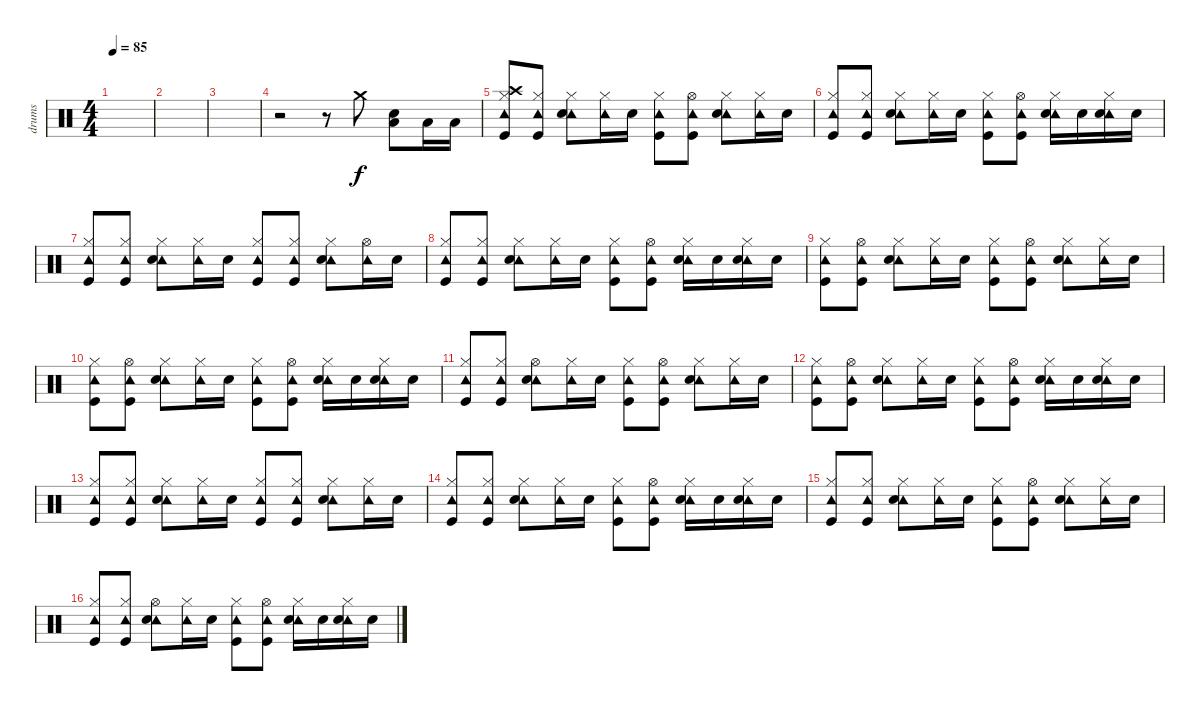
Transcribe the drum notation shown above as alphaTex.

\track ("drums" "drums") {instrument percussion}
\staff {score}
\articulation defaults
\ts (4 4)
\tempo 85
\clef neutral
\ks c
|
|
|
r.2 r.8 "Crash medium (hit)".8 ("Low Tom (hit)" "Electric Snare (hit)").8 "Low Tom (hit)".16 "Low Tom (hit)".16 |
\section ("" "")
("Tambourine (hit)" "Hi-Hat (closed)" "Crash high (hit)" "Kick (hit)").8 ("Tambourine (hit)" "Hi-Hat (closed)" "Kick (hit)").8 ("Tambourine (hit)" "Hi-Hat (closed)" "Electric Snare (hit)").8 ("Tambourine (hit)" "Hi-Hat (closed)").16 "Electric Snare (hit)".16 ("Tambourine (hit)" "Hi-Hat (closed)" "Kick (hit)").8 ("Tambourine (hit)" "Hi-Hat (open)" "Kick (hit)").8 ("Tambourine (hit)" "Hi-Hat (closed)" "Electric Snare (hit)").8 ("Tambourine (hit)" "Hi-Hat (closed)").16 "Electric Snare (hit)".16 |
("Tambourine (hit)" "Hi-Hat (closed)" "Kick (hit)").8 ("Tambourine (hit)" "Hi-Hat (closed)" "Kick (hit)").8 ("Tambourine (hit)" "Hi-Hat (closed)" "Electric Snare (hit)").8 ("Tambourine (hit)" "Hi-Hat (closed)").16 "Electric Snare (hit)".16 ("Tambourine (hit)" "Hi-Hat (closed)" "Kick (hit)").8 ("Tambourine (hit)" "Hi-Hat (open)" "Kick (hit)").8 ("Tambourine (hit)" "Hi-Hat (closed)" "Electric Snare (hit)").16 "Electric Snare (hit)".16 ("Tambourine (hit)" "Hi-Hat (closed)" "Electric Snare (hit)").16 "Electric Snare (hit)".16 |
("Tambourine (hit)" "Hi-Hat (closed)" "Kick (hit)").8 ("Tambourine (hit)" "Hi-Hat (closed)" "Kick (hit)").8 ("Tambourine (hit)" "Hi-Hat (closed)" "Electric Snare (hit)").8 ("Tambourine (hit)" "Hi-Hat (closed)").16 "Electric Snare (hit)".16 ("Tambourine (hit)" "Hi-Hat (closed)" "Kick (hit)").8 ("Tambourine (hit)" "Hi-Hat (closed)" "Kick (hit)").8 ("Tambourine (hit)" "Hi-Hat (closed)" "Electric Snare (hit)").8 ("Tambourine (hit)" "Hi-Hat (open)").16 "Electric Snare (hit)".16 |
("Tambourine (hit)" "Hi-Hat (closed)" "Kick (hit)").8 ("Tambourine (hit)" "Hi-Hat (closed)" "Kick (hit)").8 ("Tambourine (hit)" "Hi-Hat (closed)" "Electric Snare (hit)").8 ("Tambourine (hit)" "Hi-Hat (closed)").16 "Electric Snare (hit)".16 ("Tambourine (hit)" "Hi-Hat (closed)" "Kick (hit)").8 ("Tambourine (hit)" "Hi-Hat (open)" "Kick (hit)").8 ("Tambourine (hit)" "Hi-Hat (closed)" "Electric Snare (hit)").16 "Electric Snare (hit)".16 ("Tambourine (hit)" "Hi-Hat (closed)" "Electric Snare (hit)").16 "Electric Snare (hit)".16 |
\section ("" "")
("Tambourine (hit)" "Hi-Hat (closed)" "Kick (hit)").8 ("Tambourine (hit)" "Hi-Hat (open)" "Kick (hit)").8 ("Tambourine (hit)" "Hi-Hat (closed)" "Electric Snare (hit)").8 ("Tambourine (hit)" "Hi-Hat (closed)").16 "Electric Snare (hit)".16 ("Tambourine (hit)" "Hi-Hat (closed)" "Kick (hit)").8 ("Tambourine (hit)" "Hi-Hat (open)" "Kick (hit)").8 ("Tambourine (hit)" "Hi-Hat (closed)" "Electric Snare (hit)").8 ("Tambourine (hit)" "Hi-Hat (closed)").16 "Electric Snare (hit)".16 |
("Tambourine (hit)" "Hi-Hat (closed)" "Kick (hit)").8 ("Tambourine (hit)" "Hi-Hat (open)" "Kick (hit)").8 ("Tambourine (hit)" "Hi-Hat (closed)" "Electric Snare (hit)").8 ("Tambourine (hit)" "Hi-Hat (closed)").16 "Electric Snare (hit)".16 ("Tambourine (hit)" "Hi-Hat (closed)" "Kick (hit)").8 ("Tambourine (hit)" "Hi-Hat (open)" "Kick (hit)").8 ("Tambourine (hit)" "Hi-Hat (closed)" "Electric Snare (hit)").16 "Electric Snare (hit)".16 ("Tambourine (hit)" "Hi-Hat (closed)" "Electric Snare (hit)").16 "Electric Snare (hit)".16 |
("Tambourine (hit)" "Hi-Hat (closed)" "Kick (hit)").8 ("Tambourine (hit)" "Hi-Hat (closed)" "Kick (hit)").8 ("Tambourine (hit)" "Hi-Hat (open)" "Electric Snare (hit)").8 ("Tambourine (hit)" "Hi-Hat (closed)").16 "Electric Snare (hit)".16 ("Tambourine (hit)" "Hi-Hat (closed)" "Kick (hit)").8 ("Tambourine (hit)" "Hi-Hat (open)" "Kick (hit)").8 ("Tambourine (hit)" "Hi-Hat (closed)" "Electric Snare (hit)").8 ("Tambourine (hit)" "Hi-Hat (closed)").16 "Electric Snare (hit)".16 |
("Tambourine (hit)" "Hi-Hat (closed)" "Kick (hit)").8 ("Tambourine (hit)" "Hi-Hat (open)" "Kick (hit)").8 ("Tambourine (hit)" "Hi-Hat (closed)" "Electric Snare (hit)").8 ("Tambourine (hit)" "Hi-Hat (closed)").16 "Electric Snare (hit)".16 ("Tambourine (hit)" "Hi-Hat (closed)" "Kick (hit)").8 ("Tambourine (hit)" "Hi-Hat (open)" "Kick (hit)").8 ("Tambourine (hit)" "Hi-Hat (closed)" "Electric Snare (hit)").16 "Electric Snare (hit)".16 ("Tambourine (hit)" "Hi-Hat (closed)" "Electric Snare (hit)").16 "Electric Snare (hit)".16 |
("Tambourine (hit)" "Hi-Hat (closed)" "Kick (hit)").8 ("Tambourine (hit)" "Hi-Hat (closed)" "Kick (hit)").8 ("Tambourine (hit)" "Hi-Hat (closed)" "Electric Snare (hit)").8 ("Tambourine (hit)" "Hi-Hat (closed)").16 "Electric Snare (hit)".16 ("Tambourine (hit)" "Hi-Hat (closed)" "Kick (hit)").8 ("Tambourine (hit)" "Hi-Hat (closed)" "Kick (hit)").8 ("Tambourine (hit)" "Hi-Hat (closed)" "Electric Snare (hit)").8 ("Tambourine (hit)" "Hi-Hat (closed)").16 "Electric Snare (hit)".16 |
("Tambourine (hit)" "Hi-Hat (closed)" "Kick (hit)").8 ("Tambourine (hit)" "Hi-Hat (closed)" "Kick (hit)").8 ("Tambourine (hit)" "Hi-Hat (closed)" "Electric Snare (hit)").8 ("Tambourine (hit)" "Hi-Hat (closed)").16 "Electric Snare (hit)".16 ("Tambourine (hit)" "Hi-Hat (closed)" "Kick (hit)").8 ("Tambourine (hit)" "Hi-Hat (open)" "Kick (hit)").8 ("Tambourine (hit)" "Hi-Hat (closed)" "Electric Snare (hit)").16 "Electric Snare (hit)".16 ("Tambourine (hit)" "Hi-Hat (closed)" "Electric Snare (hit)").16 "Electric Snare (hit)".16 |
("Tambourine (hit)" "Hi-Hat (closed)" "Kick (hit)").8 ("Tambourine (hit)" "Hi-Hat (closed)" "Kick (hit)").8 ("Tambourine (hit)" "Hi-Hat (closed)" "Electric Snare (hit)").8 ("Tambourine (hit)" "Hi-Hat (closed)").16 "Electric Snare (hit)".16 ("Tambourine (hit)" "Hi-Hat (closed)" "Kick (hit)").8 ("Tambourine (hit)" "Hi-Hat (open)" "Kick (hit)").8 ("Tambourine (hit)" "Hi-Hat (closed)" "Electric Snare (hit)").8 ("Tambourine (hit)" "Hi-Hat (closed)").16 "Electric Snare (hit)".16 |
("Tambourine (hit)" "Hi-Hat (closed)" "Kick (hit)").8 ("Tambourine (hit)" "Hi-Hat (closed)" "Kick (hit)").8 ("Tambourine (hit)" "Hi-Hat (open)" "Electric Snare (hit)").8 ("Tambourine (hit)" "Hi-Hat (closed)").16 "Electric Snare (hit)".16 ("Tambourine (hit)" "Hi-Hat (closed)" "Kick (hit)").8 ("Tambourine (hit)" "Hi-Hat (open)" "Kick (hit)").8 ("Tambourine (hit)" "Hi-Hat (closed)" "Electric Snare (hit)").16 "Electric Snare (hit)".16 ("Tambourine (hit)" "Hi-Hat (closed)" "Electric Snare (hit)").16 "Electric Snare (hit)".16
